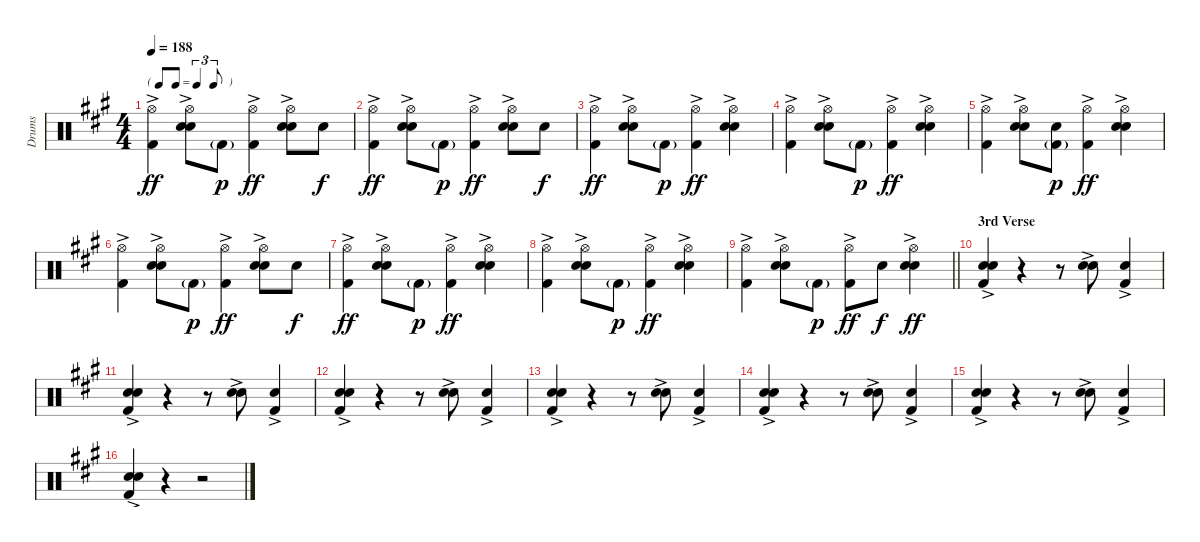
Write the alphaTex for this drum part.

\track ("Drums" "Drums") {instrument percussion}
\staff {score}
\articulation defaults
\ts (4 4)
\tf triplet8th
\tempo 188
\clef neutral
\ks a
("Hi-Hat (open)" "Kick (hit) 2"{ac}).4{dy ff} ("Hi-Hat (open)" "Electric Snare (hit)"{ac} "Snare (hit) 2").8 "Kick (hit) 2"{g}.8{dy p} ("Hi-Hat (open)" "Kick (hit) 2"{ac}).4{dy ff} ("Hi-Hat (open)" "Electric Snare (hit)"{ac} "Snare (hit) 2").8 "Snare (hit) 2".8{dy f} |
("Hi-Hat (open)" "Kick (hit) 2"{ac}).4{dy ff} ("Hi-Hat (open)" "Electric Snare (hit)"{ac} "Snare (hit) 2").8 "Kick (hit) 2"{g}.8{dy p} ("Hi-Hat (open)" "Kick (hit) 2"{ac}).4{dy ff} ("Hi-Hat (open)" "Electric Snare (hit)"{ac} "Snare (hit) 2").8 "Snare (hit) 2".8{dy f} |
("Hi-Hat (open)" "Kick (hit) 2"{ac}).4{dy ff} ("Hi-Hat (open)" "Electric Snare (hit)"{ac} "Snare (hit) 2").8 "Kick (hit) 2"{g}.8{dy p} ("Hi-Hat (open)" "Kick (hit) 2"{ac}).4{dy ff} ("Hi-Hat (open)" "Electric Snare (hit)"{ac} "Snare (hit) 2").4 |
("Hi-Hat (open)" "Kick (hit) 2"{ac}).4 ("Hi-Hat (open)" "Electric Snare (hit)"{ac} "Snare (hit) 2").8 "Kick (hit) 2"{g}.8{dy p} ("Hi-Hat (open)" "Kick (hit) 2"{ac}).4{dy ff} ("Hi-Hat (open)" "Electric Snare (hit)"{ac} "Snare (hit) 2").4 |
("Hi-Hat (open)" "Kick (hit) 2"{ac}).4 ("Hi-Hat (open)" "Electric Snare (hit)"{ac} "Snare (hit) 2").8 ("Snare (hit) 2" "Kick (hit) 2"{g}).8{dy p} ("Hi-Hat (open)" "Kick (hit) 2"{ac}).4{dy ff} ("Hi-Hat (open)" "Electric Snare (hit)"{ac} "Snare (hit) 2").4 |
("Hi-Hat (open)" "Kick (hit) 2"{ac}).4 ("Hi-Hat (open)" "Electric Snare (hit)"{ac} "Snare (hit) 2").8 "Kick (hit) 2"{g}.8{dy p} ("Hi-Hat (open)" "Kick (hit) 2"{ac}).4{dy ff} ("Hi-Hat (open)" "Electric Snare (hit)"{ac} "Snare (hit) 2").8 "Snare (hit) 2".8{dy f} |
("Hi-Hat (open)" "Kick (hit) 2"{ac}).4{dy ff} ("Hi-Hat (open)" "Electric Snare (hit)"{ac} "Snare (hit) 2").8 "Kick (hit) 2"{g}.8{dy p} ("Hi-Hat (open)" "Kick (hit) 2"{ac}).4{dy ff} ("Hi-Hat (open)" "Electric Snare (hit)"{ac} "Snare (hit) 2").4 |
("Hi-Hat (open)" "Kick (hit) 2"{ac}).4 ("Hi-Hat (open)" "Electric Snare (hit)"{ac} "Snare (hit) 2").8 "Kick (hit) 2"{g}.8{dy p} ("Hi-Hat (open)" "Kick (hit) 2"{ac}).4{dy ff} ("Hi-Hat (open)" "Electric Snare (hit)"{ac} "Snare (hit) 2").4 |
\barLineRight lightlight
("Hi-Hat (open)" "Kick (hit) 2"{ac}).4 ("Hi-Hat (open)" "Electric Snare (hit)"{ac} "Snare (hit) 2").8 "Kick (hit) 2"{g}.8{dy p} ("Hi-Hat (open)" "Kick (hit) 2"{ac}).8{dy ff} "Snare (hit) 2".8{dy f} ("Hi-Hat (open)" "Electric Snare (hit)"{ac} "Snare (hit) 2").4{dy ff} |
\section ("" "3rd Verse")
("Electric Snare (hit)"{ac} "Snare (hit) 2" "Kick (hit) 2"{ac}).4 r.4 r.8 ("Electric Snare (hit)"{ac} "Snare (hit) 2").8 ("Snare (hit) 2" "Kick (hit) 2"{ac}).4 |
("Electric Snare (hit)"{ac} "Snare (hit) 2" "Kick (hit) 2"{ac}).4 r.4 r.8 ("Electric Snare (hit)"{ac} "Snare (hit) 2").8 ("Snare (hit) 2" "Kick (hit) 2"{ac}).4 |
("Electric Snare (hit)"{ac} "Snare (hit) 2" "Kick (hit) 2"{ac}).4 r.4 r.8 ("Electric Snare (hit)"{ac} "Snare (hit) 2").8 ("Snare (hit) 2" "Kick (hit) 2"{ac}).4 |
("Electric Snare (hit)"{ac} "Snare (hit) 2" "Kick (hit) 2"{ac}).4 r.4 r.8 ("Electric Snare (hit)"{ac} "Snare (hit) 2").8 ("Snare (hit) 2" "Kick (hit) 2"{ac}).4 |
("Electric Snare (hit)"{ac} "Snare (hit) 2" "Kick (hit) 2"{ac}).4 r.4 r.8 ("Electric Snare (hit)"{ac} "Snare (hit) 2").8 ("Snare (hit) 2" "Kick (hit) 2"{ac}).4 |
("Electric Snare (hit)"{ac} "Snare (hit) 2" "Kick (hit) 2"{ac}).4 r.4 r.8 ("Electric Snare (hit)"{ac} "Snare (hit) 2").8 ("Snare (hit) 2" "Kick (hit) 2"{ac}).4 |
("Electric Snare (hit)"{ac} "Snare (hit) 2" "Kick (hit) 2"{ac}).4 r.4 r.2
